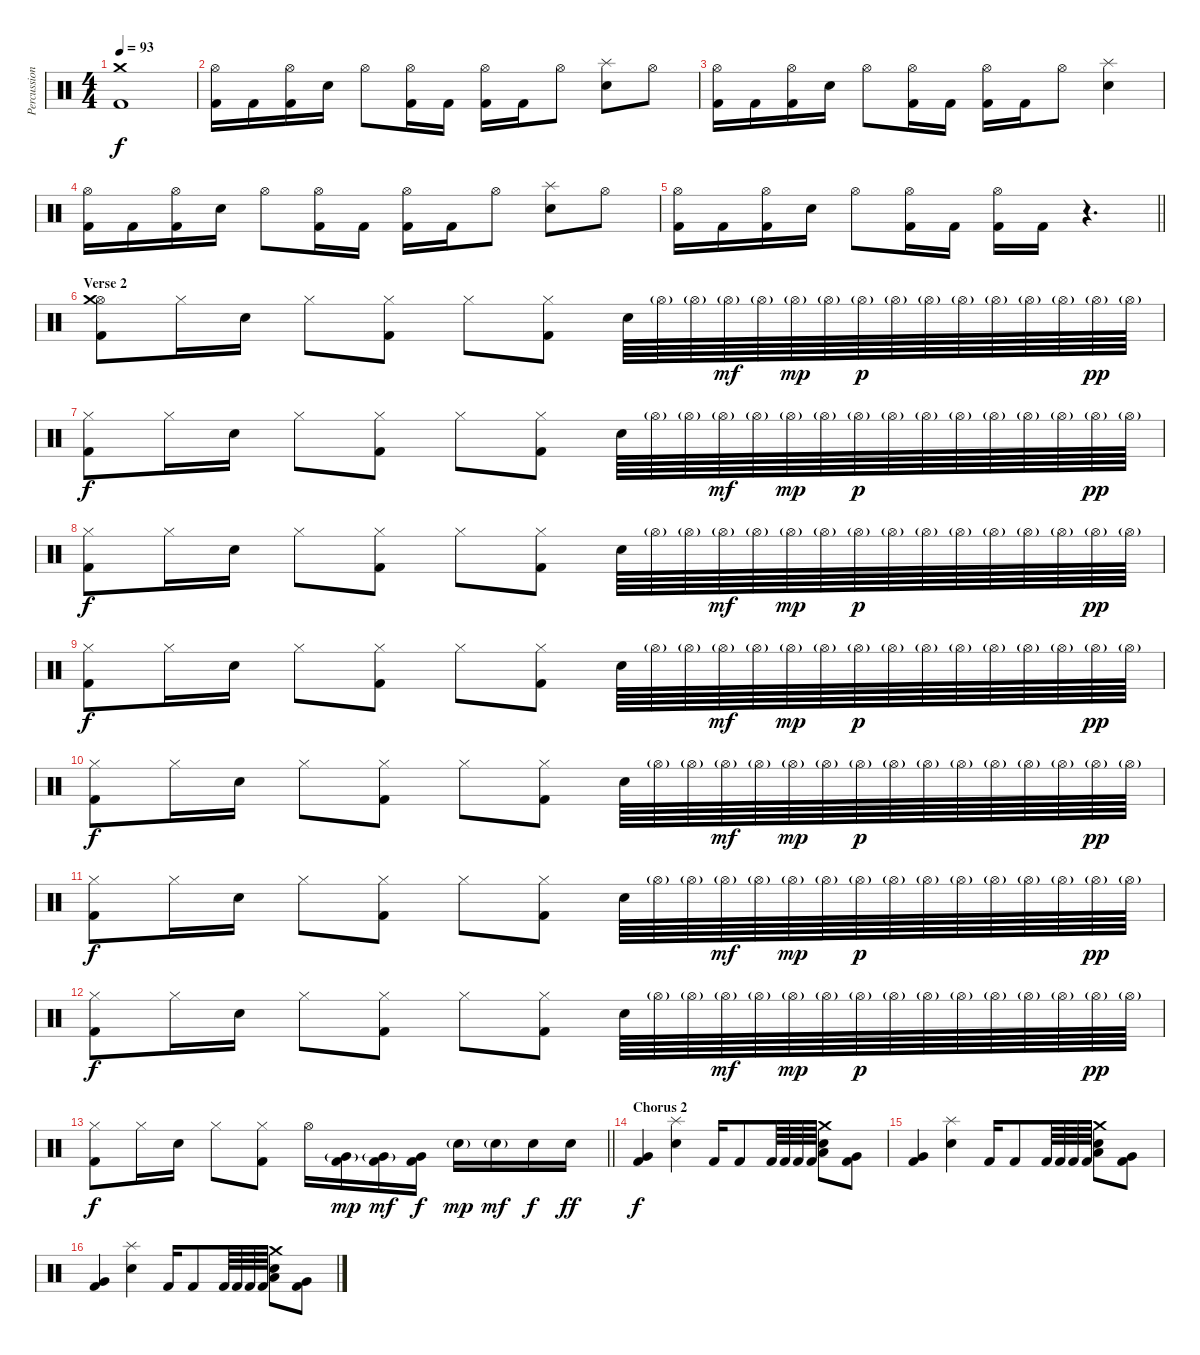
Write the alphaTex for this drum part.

\track ("Percussion" "Percussion") {instrument percussion}
\staff {score}
\articulation defaults
\ts (4 4)
\tempo 93
\clef neutral
\ks c
("Crash medium (hit)" "Kick (hit) 2").1{dy f} |
("Hi-Hat (open)" "Kick (hit) 2").16 "Kick (hit) 2".16 ("Hi-Hat (open)" "Kick (hit) 2").16 "Snare (hit) 2".16 "Hi-Hat (open)".8 ("Hi-Hat (open)" "Kick (hit) 2").16 "Kick (hit) 2".16 ("Hi-Hat (open)" "Kick (hit) 2").16 "Kick (hit) 2".16 "Hi-Hat (open)".8 ("Splash (hit)" "Snare (hit) 2").8 "Hi-Hat (open)".8 |
("Hi-Hat (open)" "Kick (hit) 2").16 "Kick (hit) 2".16 ("Hi-Hat (open)" "Kick (hit) 2").16 "Snare (hit) 2".16 "Hi-Hat (open)".8 ("Hi-Hat (open)" "Kick (hit) 2").16 "Kick (hit) 2".16 ("Hi-Hat (open)" "Kick (hit) 2").16 "Kick (hit) 2".16 "Hi-Hat (open)".8 ("Splash (hit)" "Snare (hit) 2").4 |
("Hi-Hat (open)" "Kick (hit) 2").16 "Kick (hit) 2".16 ("Hi-Hat (open)" "Kick (hit) 2").16 "Snare (hit) 2".16 "Hi-Hat (open)".8 ("Hi-Hat (open)" "Kick (hit) 2").16 "Kick (hit) 2".16 ("Hi-Hat (open)" "Kick (hit) 2").16 "Kick (hit) 2".16 "Hi-Hat (open)".8 ("Splash (hit)" "Snare (hit) 2").8 "Hi-Hat (open)".8 |
\barLineRight lightlight
("Hi-Hat (open)" "Kick (hit) 2").16 "Kick (hit) 2".16 ("Hi-Hat (open)" "Kick (hit) 2").16 "Snare (hit) 2".16 "Hi-Hat (open)".8 ("Hi-Hat (open)" "Kick (hit) 2").16 "Kick (hit) 2".16 ("Hi-Hat (open)" "Kick (hit) 2").16 "Kick (hit) 2".16 r.4{d} |
\section ("" "Verse 2")
("Hi-Hat (open)" "Crash medium (hit)" "Kick (hit) 2").8 "Hi-Hat (closed)".16 "Snare (hit) 2".16 "Hi-Hat (closed)".8 ("Hi-Hat (closed)" "Kick (hit) 2").8 "Hi-Hat (closed)".8 ("Hi-Hat (closed)" "Kick (hit) 2").8 "Snare (hit) 2".64 "Hi-Hat (open)"{g}.64 "Hi-Hat (open)"{g}.64 "Hi-Hat (open)"{g}.64{dy mf} "Hi-Hat (open)"{g}.64 "Hi-Hat (open)"{g}.64{dy mp} "Hi-Hat (open)"{g}.64 "Hi-Hat (open)"{g}.64{dy p} "Hi-Hat (open)"{g}.64 "Hi-Hat (open)"{g}.64 "Hi-Hat (open)"{g}.64 "Hi-Hat (open)"{g}.64 "Hi-Hat (open)"{g}.64 "Hi-Hat (open)"{g}.64 "Hi-Hat (open)"{g}.64{dy pp} "Hi-Hat (open)"{g}.64 |
("Hi-Hat (closed)" "Kick (hit) 2").8{dy f} "Hi-Hat (closed)".16 "Snare (hit) 2".16 "Hi-Hat (closed)".8 ("Hi-Hat (closed)" "Kick (hit) 2").8 "Hi-Hat (closed)".8 ("Hi-Hat (closed)" "Kick (hit) 2").8 "Snare (hit) 2".64 "Hi-Hat (open)"{g}.64 "Hi-Hat (open)"{g}.64 "Hi-Hat (open)"{g}.64{dy mf} "Hi-Hat (open)"{g}.64 "Hi-Hat (open)"{g}.64{dy mp} "Hi-Hat (open)"{g}.64 "Hi-Hat (open)"{g}.64{dy p} "Hi-Hat (open)"{g}.64 "Hi-Hat (open)"{g}.64 "Hi-Hat (open)"{g}.64 "Hi-Hat (open)"{g}.64 "Hi-Hat (open)"{g}.64 "Hi-Hat (open)"{g}.64 "Hi-Hat (open)"{g}.64{dy pp} "Hi-Hat (open)"{g}.64 |
("Hi-Hat (closed)" "Kick (hit) 2").8{dy f} "Hi-Hat (closed)".16 "Snare (hit) 2".16 "Hi-Hat (closed)".8 ("Hi-Hat (closed)" "Kick (hit) 2").8 "Hi-Hat (closed)".8 ("Hi-Hat (closed)" "Kick (hit) 2").8 "Snare (hit) 2".64 "Hi-Hat (open)"{g}.64 "Hi-Hat (open)"{g}.64 "Hi-Hat (open)"{g}.64{dy mf} "Hi-Hat (open)"{g}.64 "Hi-Hat (open)"{g}.64{dy mp} "Hi-Hat (open)"{g}.64 "Hi-Hat (open)"{g}.64{dy p} "Hi-Hat (open)"{g}.64 "Hi-Hat (open)"{g}.64 "Hi-Hat (open)"{g}.64 "Hi-Hat (open)"{g}.64 "Hi-Hat (open)"{g}.64 "Hi-Hat (open)"{g}.64 "Hi-Hat (open)"{g}.64{dy pp} "Hi-Hat (open)"{g}.64 |
("Hi-Hat (closed)" "Kick (hit) 2").8{dy f} "Hi-Hat (closed)".16 "Snare (hit) 2".16 "Hi-Hat (closed)".8 ("Hi-Hat (closed)" "Kick (hit) 2").8 "Hi-Hat (closed)".8 ("Hi-Hat (closed)" "Kick (hit) 2").8 "Snare (hit) 2".64 "Hi-Hat (open)"{g}.64 "Hi-Hat (open)"{g}.64 "Hi-Hat (open)"{g}.64{dy mf} "Hi-Hat (open)"{g}.64 "Hi-Hat (open)"{g}.64{dy mp} "Hi-Hat (open)"{g}.64 "Hi-Hat (open)"{g}.64{dy p} "Hi-Hat (open)"{g}.64 "Hi-Hat (open)"{g}.64 "Hi-Hat (open)"{g}.64 "Hi-Hat (open)"{g}.64 "Hi-Hat (open)"{g}.64 "Hi-Hat (open)"{g}.64 "Hi-Hat (open)"{g}.64{dy pp} "Hi-Hat (open)"{g}.64 |
("Hi-Hat (closed)" "Kick (hit) 2").8{dy f} "Hi-Hat (closed)".16 "Snare (hit) 2".16 "Hi-Hat (closed)".8 ("Hi-Hat (closed)" "Kick (hit) 2").8 "Hi-Hat (closed)".8 ("Hi-Hat (closed)" "Kick (hit) 2").8 "Snare (hit) 2".64 "Hi-Hat (open)"{g}.64 "Hi-Hat (open)"{g}.64 "Hi-Hat (open)"{g}.64{dy mf} "Hi-Hat (open)"{g}.64 "Hi-Hat (open)"{g}.64{dy mp} "Hi-Hat (open)"{g}.64 "Hi-Hat (open)"{g}.64{dy p} "Hi-Hat (open)"{g}.64 "Hi-Hat (open)"{g}.64 "Hi-Hat (open)"{g}.64 "Hi-Hat (open)"{g}.64 "Hi-Hat (open)"{g}.64 "Hi-Hat (open)"{g}.64 "Hi-Hat (open)"{g}.64{dy pp} "Hi-Hat (open)"{g}.64 |
("Hi-Hat (closed)" "Kick (hit) 2").8{dy f} "Hi-Hat (closed)".16 "Snare (hit) 2".16 "Hi-Hat (closed)".8 ("Hi-Hat (closed)" "Kick (hit) 2").8 "Hi-Hat (closed)".8 ("Hi-Hat (closed)" "Kick (hit) 2").8 "Snare (hit) 2".64 "Hi-Hat (open)"{g}.64 "Hi-Hat (open)"{g}.64 "Hi-Hat (open)"{g}.64{dy mf} "Hi-Hat (open)"{g}.64 "Hi-Hat (open)"{g}.64{dy mp} "Hi-Hat (open)"{g}.64 "Hi-Hat (open)"{g}.64{dy p} "Hi-Hat (open)"{g}.64 "Hi-Hat (open)"{g}.64 "Hi-Hat (open)"{g}.64 "Hi-Hat (open)"{g}.64 "Hi-Hat (open)"{g}.64 "Hi-Hat (open)"{g}.64 "Hi-Hat (open)"{g}.64{dy pp} "Hi-Hat (open)"{g}.64 |
("Hi-Hat (closed)" "Kick (hit) 2").8{dy f} "Hi-Hat (closed)".16 "Snare (hit) 2".16 "Hi-Hat (closed)".8 ("Hi-Hat (closed)" "Kick (hit) 2").8 "Hi-Hat (closed)".8 ("Hi-Hat (closed)" "Kick (hit) 2").8 "Snare (hit) 2".64 "Hi-Hat (open)"{g}.64 "Hi-Hat (open)"{g}.64 "Hi-Hat (open)"{g}.64{dy mf} "Hi-Hat (open)"{g}.64 "Hi-Hat (open)"{g}.64{dy mp} "Hi-Hat (open)"{g}.64 "Hi-Hat (open)"{g}.64{dy p} "Hi-Hat (open)"{g}.64 "Hi-Hat (open)"{g}.64 "Hi-Hat (open)"{g}.64 "Hi-Hat (open)"{g}.64 "Hi-Hat (open)"{g}.64 "Hi-Hat (open)"{g}.64 "Hi-Hat (open)"{g}.64{dy pp} "Hi-Hat (open)"{g}.64 |
\barLineRight lightlight
("Hi-Hat (closed)" "Kick (hit) 2").8{dy f} "Hi-Hat (closed)".16 "Snare (hit) 2".16 "Hi-Hat (closed)".8 ("Hi-Hat (closed)" "Kick (hit) 2").8 "Hi-Hat (open)".16 ("Very Low Tom (hit)"{g} "Kick (hit) 2").16{dy mp} ("Very Low Tom (hit)"{g} "Kick (hit) 2").16{dy mf} ("Very Low Tom (hit)" "Kick (hit) 2").16{dy f} "Snare (hit) 2"{g}.16{dy mp} "Snare (hit) 2"{g}.16{dy mf} "Snare (hit) 2".16{dy f} "Snare (hit) 2".16{dy ff} |
\section ("" "Chorus 2")
("Very Low Tom (hit)" "Kick (hit) 2").4{dy f} ("Splash (hit)" "Snare (hit) 2").4 "Kick (hit) 2".16 "Kick (hit) 2".8 "Kick (hit) 2".64 "Kick (hit) 2".64 "Kick (hit) 2".64 "Kick (hit) 2".64 ("Crash medium (hit)" "Snare (hit) 2" "Low Tom (hit)").8 ("Very Low Tom (hit)" "Kick (hit) 2").8 |
("Very Low Tom (hit)" "Kick (hit) 2").4 ("Splash (hit)" "Snare (hit) 2").4 "Kick (hit) 2".16 "Kick (hit) 2".8 "Kick (hit) 2".64 "Kick (hit) 2".64 "Kick (hit) 2".64 "Kick (hit) 2".64 ("Crash medium (hit)" "Snare (hit) 2" "Low Tom (hit)").8 ("Very Low Tom (hit)" "Kick (hit) 2").8 |
("Very Low Tom (hit)" "Kick (hit) 2").4 ("Splash (hit)" "Snare (hit) 2").4 "Kick (hit) 2".16 "Kick (hit) 2".8 "Kick (hit) 2".64 "Kick (hit) 2".64 "Kick (hit) 2".64 "Kick (hit) 2".64 ("Crash medium (hit)" "Snare (hit) 2" "Low Tom (hit)").8 ("Very Low Tom (hit)" "Kick (hit) 2").8
